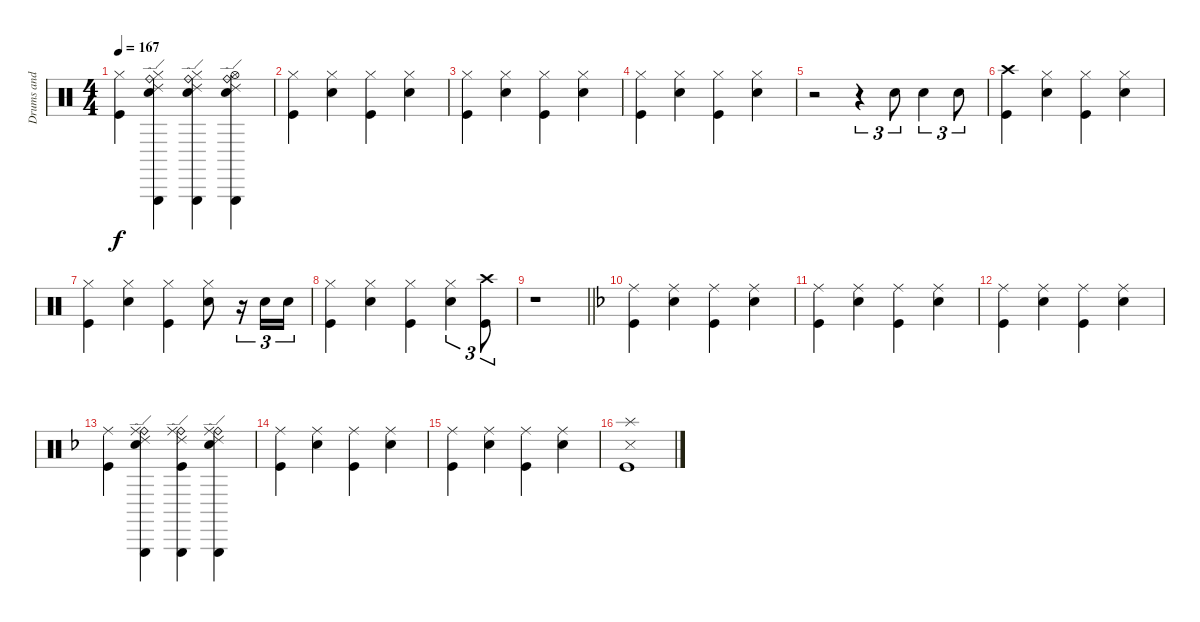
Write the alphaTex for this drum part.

\track ("Drums and percussion" "Drums and ") {instrument percussion}
\staff {score}
\articulation defaults
\ts (4 4)
\tempo 167
\clef neutral
\ks c
("Hi-Hat (closed)" "Kick (hit)").4{dy f} ("Snare (hit) 2" "Triangle (hit)" "Hi-Hat (closed)" "Ride (edge) 2" "Ride (bell)").4 ("Snare (hit) 2" "Triangle (hit)" "Hi-Hat (closed)" "Ride (edge) 2" "Ride (bell)").4 ("Snare (hit) 2" "Triangle (hit)" "Hi-Hat (open)" "Ride (edge) 2" "Ride (bell)").4 |
("Hi-Hat (closed)" "Kick (hit)").4 ("Hi-Hat (closed)" "Snare (hit) 2").4 ("Hi-Hat (closed)" "Kick (hit)").4 ("Hi-Hat (closed)" "Snare (hit) 2").4 |
("Hi-Hat (closed)" "Kick (hit)").4 ("Hi-Hat (closed)" "Snare (hit) 2").4 ("Hi-Hat (closed)" "Kick (hit)").4 ("Hi-Hat (closed)" "Snare (hit) 2").4 |
("Hi-Hat (closed)" "Kick (hit)").4 ("Hi-Hat (closed)" "Snare (hit) 2").4 ("Hi-Hat (closed)" "Kick (hit)").4 ("Hi-Hat (closed)" "Snare (hit) 2").4 |
r.2 r.4{tu (3 2)} "Electric Snare (hit)".8{tu (3 2)} "Electric Snare (hit)".4{tu (3 2)} "Electric Snare (hit)".8{tu (3 2)} |
("Crash high (hit)" "Kick (hit)").4 ("Hi-Hat (closed)" "Snare (hit) 2").4 ("Hi-Hat (closed)" "Kick (hit)").4 ("Hi-Hat (closed)" "Snare (hit) 2").4 |
("Hi-Hat (closed)" "Kick (hit)").4 ("Hi-Hat (closed)" "Snare (hit) 2").4 ("Hi-Hat (closed)" "Kick (hit)").4 ("Hi-Hat (closed)" "Snare (hit) 2").8 r.16{tu (3 2)} "Snare (hit) 2".16{tu (3 2)} "Snare (hit) 2".16{tu (3 2)} |
("Hi-Hat (closed)" "Kick (hit)").4 ("Hi-Hat (closed)" "Snare (hit) 2").4 ("Hi-Hat (closed)" "Kick (hit)").4 ("Hi-Hat (closed)" "Snare (hit) 2").4{tu (3 2)} ("Crash high (hit)" "Kick (hit)").8{tu (3 2)} |
\barLineRight lightlight
r.1 |
\ks f
("Ride (middle)" "Kick (hit)").4 ("Ride (middle)" "Snare (hit) 2").4 ("Ride (middle)" "Kick (hit)").4 ("Ride (middle)" "Snare (hit) 2").4 |
("Ride (middle)" "Kick (hit)").4 ("Ride (middle)" "Snare (hit) 2").4 ("Ride (middle)" "Kick (hit)").4 ("Ride (middle)" "Snare (hit) 2").4 |
("Ride (middle)" "Kick (hit)").4 ("Ride (middle)" "Snare (hit) 2").4 ("Ride (middle)" "Kick (hit)").4 ("Ride (middle)" "Snare (hit) 2").4 |
("Ride (middle)" "Kick (hit)").4 ("Snare (hit) 2" "Triangle (hit)" "Ride (edge) 2" "Ride (bell)" "Ride (middle)").4 ("Triangle (hit)" "Ride (edge) 2" "Ride (bell)" "Ride (middle)" "Kick (hit)").4 ("Snare (hit) 2" "Triangle (hit)" "Ride (edge) 2" "Ride (bell)" "Ride (middle)").4 |
("Ride (middle)" "Kick (hit)").4 ("Ride (middle)" "Snare (hit) 2").4 ("Ride (middle)" "Kick (hit)").4 ("Ride (middle)" "Snare (hit) 2").4 |
("Ride (middle)" "Kick (hit)").4 ("Ride (middle)" "Snare (hit) 2").4 ("Ride (middle)" "Kick (hit)").4 ("Ride (middle)" "Snare (hit) 2").4 |
("Splash (hit)" "Metronome (hit)" "Kick (hit)").1
